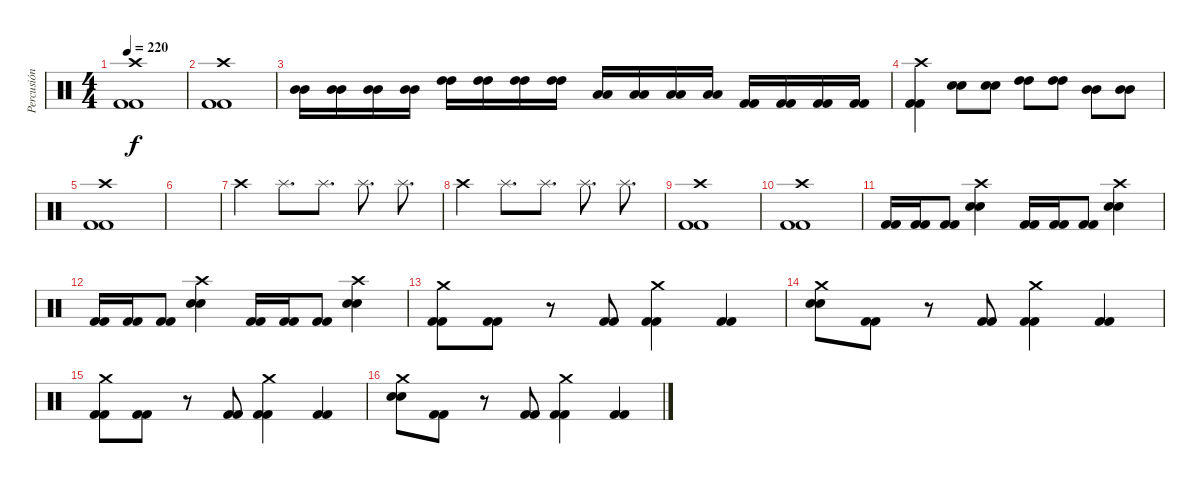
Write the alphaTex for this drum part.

\track ("Percusión" "Percusión") {instrument percussion}
\staff {score}
\articulation defaults
\ts (4 4)
\tempo 220
\clef neutral
\ks c
("Kick (hit) 2" "Kick (hit) 2" "Crash high (hit)").1{dy f} |
("Kick (hit) 2" "Kick (hit) 2" "Crash high (hit)").1 |
("Mid Tom (hit)" "Mid Tom (hit)").16 ("Mid Tom (hit)" "Mid Tom (hit)").16 ("Mid Tom (hit)" "Mid Tom (hit)").16 ("Mid Tom (hit)" "Mid Tom (hit)").16 ("High Tom (hit)" "High Tom (hit)").16 ("High Tom (hit)" "High Tom (hit)").16 ("High Tom (hit)" "High Tom (hit)").16 ("High Tom (hit)" "High Tom (hit)").16 ("Low Floor Tom (hit)" "Low Floor Tom (hit)").16 ("Low Floor Tom (hit)" "Low Floor Tom (hit)").16 ("Low Floor Tom (hit)" "Low Floor Tom (hit)").16 ("Low Floor Tom (hit)" "Low Floor Tom (hit)").16 ("Kick (hit) 2" "Kick (hit) 2").16 ("Kick (hit) 2" "Kick (hit) 2").16 ("Kick (hit) 2" "Kick (hit) 2").16 ("Kick (hit) 2" "Kick (hit) 2").16 |
("Kick (hit) 2" "Kick (hit) 2" "Crash high (hit)").4 ("Electric Snare (hit)" "Electric Snare (hit)").8 ("Electric Snare (hit)" "Electric Snare (hit)").8 ("High Tom (hit)" "High Tom (hit)").8 ("High Tom (hit)" "High Tom (hit)").8 ("Mid Tom (hit)" "Mid Tom (hit)").8 ("Mid Tom (hit)" "Mid Tom (hit)").8 |
("Kick (hit) 2" "Kick (hit) 2" "Crash high (hit)").1 |
|
"Crash high (hit)".4 "Splash (hit)".8{d} "Splash (hit)".8{d} "Splash (hit)".8{d} "Splash (hit)".8{d} |
"Crash high (hit)".4 "Splash (hit)".8{d} "Splash (hit)".8{d} "Splash (hit)".8{d} "Splash (hit)".8{d} |
("Kick (hit) 2" "Kick (hit) 2" "Crash high (hit)").1 |
("Kick (hit) 2" "Kick (hit) 2" "Crash high (hit)").1 |
("Kick (hit) 2" "Kick (hit) 2").16 ("Kick (hit) 2" "Kick (hit) 2").16 ("Kick (hit) 2" "Kick (hit) 2").8 ("Electric Snare (hit)" "Electric Snare (hit)" "Crash high (hit)").4 ("Kick (hit) 2" "Kick (hit) 2").16 ("Kick (hit) 2" "Kick (hit) 2").16 ("Kick (hit) 2" "Kick (hit) 2").8 ("Electric Snare (hit)" "Electric Snare (hit)" "Crash high (hit)").4 |
("Kick (hit) 2" "Kick (hit) 2").16 ("Kick (hit) 2" "Kick (hit) 2").16 ("Kick (hit) 2" "Kick (hit) 2").8 ("Electric Snare (hit)" "Electric Snare (hit)" "Crash high (hit)").4 ("Kick (hit) 2" "Kick (hit) 2").16 ("Kick (hit) 2" "Kick (hit) 2").16 ("Kick (hit) 2" "Kick (hit) 2").8 ("Electric Snare (hit)" "Electric Snare (hit)" "Crash high (hit)").4 |
("Kick (hit) 2" "Kick (hit) 2" "Crash medium (hit)").8 ("Kick (hit) 2" "Kick (hit) 2").8 r.8 ("Kick (hit) 2" "Kick (hit) 2").8 ("Kick (hit) 2" "Kick (hit) 2" "Crash medium (hit)").4 ("Kick (hit) 2" "Kick (hit) 2").4 |
("Electric Snare (hit)" "Electric Snare (hit)" "Crash medium (hit)").8 ("Kick (hit) 2" "Kick (hit) 2").8 r.8 ("Kick (hit) 2" "Kick (hit) 2").8 ("Kick (hit) 2" "Kick (hit) 2" "Crash medium (hit)").4 ("Kick (hit) 2" "Kick (hit) 2").4 |
("Kick (hit) 2" "Kick (hit) 2" "Crash medium (hit)").8 ("Kick (hit) 2" "Kick (hit) 2").8 r.8 ("Kick (hit) 2" "Kick (hit) 2").8 ("Kick (hit) 2" "Kick (hit) 2" "Crash medium (hit)").4 ("Kick (hit) 2" "Kick (hit) 2").4 |
("Electric Snare (hit)" "Electric Snare (hit)" "Crash medium (hit)").8 ("Kick (hit) 2" "Kick (hit) 2").8 r.8 ("Kick (hit) 2" "Kick (hit) 2").8 ("Kick (hit) 2" "Kick (hit) 2" "Crash medium (hit)").4 ("Kick (hit) 2" "Kick (hit) 2").4
